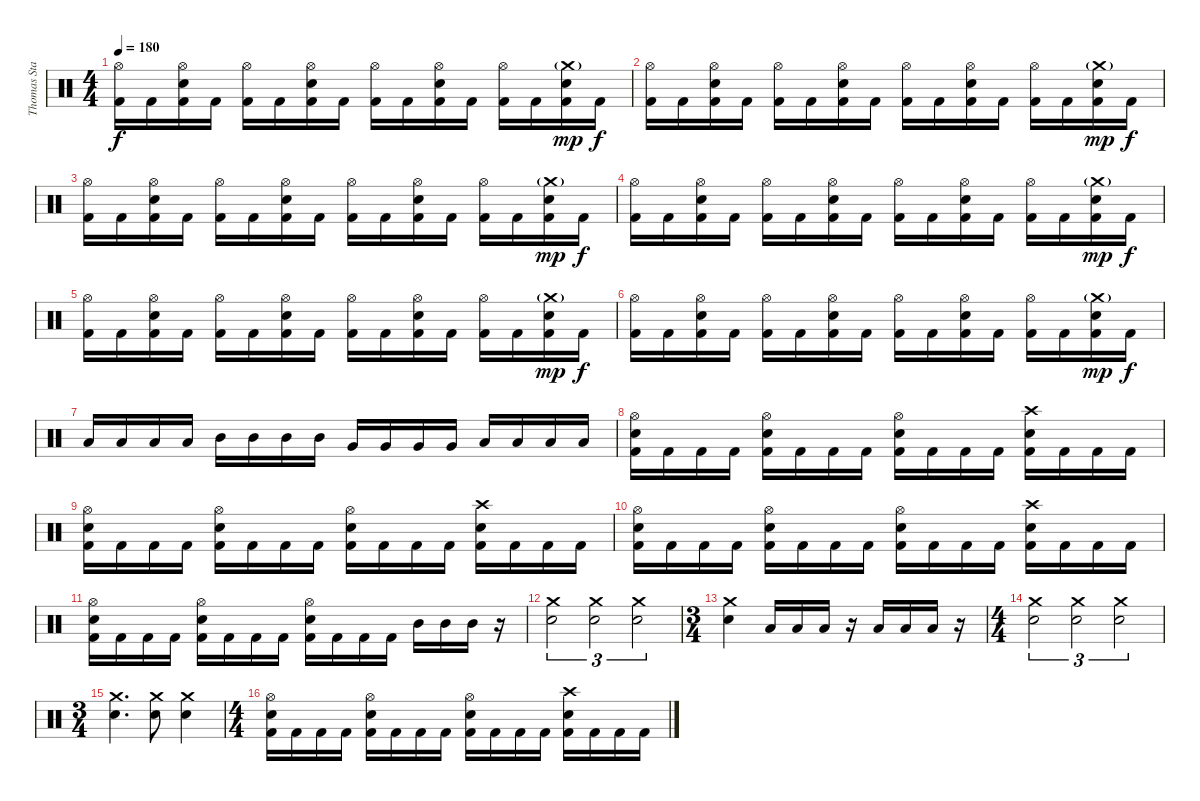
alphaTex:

\track ("Thomas Stauch" "Thomas Sta") {instrument percussion}
\staff {score}
\articulation defaults
\ts (4 4)
\tempo 180
\clef neutral
\ks c
("Hi-Hat (open)" "Kick (hit) 2").16{dy f} "Kick (hit) 2".16 ("Hi-Hat (open)" "Electric Snare (hit)" "Kick (hit) 2").16 "Kick (hit) 2".16 ("Hi-Hat (open)" "Kick (hit) 2").16 "Kick (hit) 2".16 ("Hi-Hat (open)" "Electric Snare (hit)" "Kick (hit) 2").16 "Kick (hit) 2".16 ("Hi-Hat (open)" "Kick (hit) 2").16 "Kick (hit) 2".16 ("Hi-Hat (open)" "Electric Snare (hit)" "Kick (hit) 2").16 "Kick (hit) 2".16 ("Hi-Hat (open)" "Kick (hit) 2").16 "Kick (hit) 2".16 ("Crash medium (hit)"{g} "Electric Snare (hit)" "Kick (hit) 2").16{dy mp} "Kick (hit) 2".16{dy f} |
("Hi-Hat (open)" "Kick (hit) 2").16 "Kick (hit) 2".16 ("Hi-Hat (open)" "Electric Snare (hit)" "Kick (hit) 2").16 "Kick (hit) 2".16 ("Hi-Hat (open)" "Kick (hit) 2").16 "Kick (hit) 2".16 ("Hi-Hat (open)" "Electric Snare (hit)" "Kick (hit) 2").16 "Kick (hit) 2".16 ("Hi-Hat (open)" "Kick (hit) 2").16 "Kick (hit) 2".16 ("Hi-Hat (open)" "Electric Snare (hit)" "Kick (hit) 2").16 "Kick (hit) 2".16 ("Hi-Hat (open)" "Kick (hit) 2").16 "Kick (hit) 2".16 ("Crash medium (hit)"{g} "Electric Snare (hit)" "Kick (hit) 2").16{dy mp} "Kick (hit) 2".16{dy f} |
("Hi-Hat (open)" "Kick (hit) 2").16 "Kick (hit) 2".16 ("Hi-Hat (open)" "Electric Snare (hit)" "Kick (hit) 2").16 "Kick (hit) 2".16 ("Hi-Hat (open)" "Kick (hit) 2").16 "Kick (hit) 2".16 ("Hi-Hat (open)" "Electric Snare (hit)" "Kick (hit) 2").16 "Kick (hit) 2".16 ("Hi-Hat (open)" "Kick (hit) 2").16 "Kick (hit) 2".16 ("Hi-Hat (open)" "Electric Snare (hit)" "Kick (hit) 2").16 "Kick (hit) 2".16 ("Hi-Hat (open)" "Kick (hit) 2").16 "Kick (hit) 2".16 ("Crash medium (hit)"{g} "Electric Snare (hit)" "Kick (hit) 2").16{dy mp} "Kick (hit) 2".16{dy f} |
("Hi-Hat (open)" "Kick (hit) 2").16 "Kick (hit) 2".16 ("Hi-Hat (open)" "Electric Snare (hit)" "Kick (hit) 2").16 "Kick (hit) 2".16 ("Hi-Hat (open)" "Kick (hit) 2").16 "Kick (hit) 2".16 ("Hi-Hat (open)" "Electric Snare (hit)" "Kick (hit) 2").16 "Kick (hit) 2".16 ("Hi-Hat (open)" "Kick (hit) 2").16 "Kick (hit) 2".16 ("Hi-Hat (open)" "Electric Snare (hit)" "Kick (hit) 2").16 "Kick (hit) 2".16 ("Hi-Hat (open)" "Kick (hit) 2").16 "Kick (hit) 2".16 ("Crash medium (hit)"{g} "Electric Snare (hit)" "Kick (hit) 2").16{dy mp} "Kick (hit) 2".16{dy f} |
("Hi-Hat (open)" "Kick (hit) 2").16 "Kick (hit) 2".16 ("Hi-Hat (open)" "Electric Snare (hit)" "Kick (hit) 2").16 "Kick (hit) 2".16 ("Hi-Hat (open)" "Kick (hit) 2").16 "Kick (hit) 2".16 ("Hi-Hat (open)" "Electric Snare (hit)" "Kick (hit) 2").16 "Kick (hit) 2".16 ("Hi-Hat (open)" "Kick (hit) 2").16 "Kick (hit) 2".16 ("Hi-Hat (open)" "Electric Snare (hit)" "Kick (hit) 2").16 "Kick (hit) 2".16 ("Hi-Hat (open)" "Kick (hit) 2").16 "Kick (hit) 2".16 ("Crash medium (hit)"{g} "Electric Snare (hit)" "Kick (hit) 2").16{dy mp} "Kick (hit) 2".16{dy f} |
("Hi-Hat (open)" "Kick (hit) 2").16 "Kick (hit) 2".16 ("Hi-Hat (open)" "Electric Snare (hit)" "Kick (hit) 2").16 "Kick (hit) 2".16 ("Hi-Hat (open)" "Kick (hit) 2").16 "Kick (hit) 2".16 ("Hi-Hat (open)" "Electric Snare (hit)" "Kick (hit) 2").16 "Kick (hit) 2".16 ("Hi-Hat (open)" "Kick (hit) 2").16 "Kick (hit) 2".16 ("Hi-Hat (open)" "Electric Snare (hit)" "Kick (hit) 2").16 "Kick (hit) 2".16 ("Hi-Hat (open)" "Kick (hit) 2").16 "Kick (hit) 2".16 ("Crash medium (hit)"{g} "Electric Snare (hit)" "Kick (hit) 2").16{dy mp} "Kick (hit) 2".16{dy f} |
"Low Tom (hit)".16 "Low Tom (hit)".16 "Low Tom (hit)".16 "Low Tom (hit)".16 "Mid Tom (hit)".16 "Mid Tom (hit)".16 "Mid Tom (hit)".16 "Mid Tom (hit)".16 "Very Low Tom (hit)".16 "Very Low Tom (hit)".16 "Very Low Tom (hit)".16 "Very Low Tom (hit)".16 "Low Floor Tom (hit)".16 "Low Floor Tom (hit)".16 "Low Floor Tom (hit)".16 "Low Floor Tom (hit)".16 |
("Hi-Hat (open)" "Electric Snare (hit)" "Kick (hit) 2").16 "Kick (hit) 2".16 "Kick (hit) 2".16 "Kick (hit) 2".16 ("Hi-Hat (open)" "Electric Snare (hit)" "Kick (hit) 2").16 "Kick (hit) 2".16 "Kick (hit) 2".16 "Kick (hit) 2".16 ("Hi-Hat (open)" "Electric Snare (hit)" "Kick (hit) 2").16 "Kick (hit) 2".16 "Kick (hit) 2".16 "Kick (hit) 2".16 ("Crash high (hit)" "Electric Snare (hit)" "Kick (hit) 2").16 "Kick (hit) 2".16 "Kick (hit) 2".16 "Kick (hit) 2".16 |
("Hi-Hat (open)" "Electric Snare (hit)" "Kick (hit) 2").16 "Kick (hit) 2".16 "Kick (hit) 2".16 "Kick (hit) 2".16 ("Hi-Hat (open)" "Electric Snare (hit)" "Kick (hit) 2").16 "Kick (hit) 2".16 "Kick (hit) 2".16 "Kick (hit) 2".16 ("Hi-Hat (open)" "Electric Snare (hit)" "Kick (hit) 2").16 "Kick (hit) 2".16 "Kick (hit) 2".16 "Kick (hit) 2".16 ("Crash high (hit)" "Electric Snare (hit)" "Kick (hit) 2").16 "Kick (hit) 2".16 "Kick (hit) 2".16 "Kick (hit) 2".16 |
("Hi-Hat (open)" "Electric Snare (hit)" "Kick (hit) 2").16 "Kick (hit) 2".16 "Kick (hit) 2".16 "Kick (hit) 2".16 ("Hi-Hat (open)" "Electric Snare (hit)" "Kick (hit) 2").16 "Kick (hit) 2".16 "Kick (hit) 2".16 "Kick (hit) 2".16 ("Hi-Hat (open)" "Electric Snare (hit)" "Kick (hit) 2").16 "Kick (hit) 2".16 "Kick (hit) 2".16 "Kick (hit) 2".16 ("Crash high (hit)" "Electric Snare (hit)" "Kick (hit) 2").16 "Kick (hit) 2".16 "Kick (hit) 2".16 "Kick (hit) 2".16 |
("Hi-Hat (open)" "Electric Snare (hit)" "Kick (hit) 2").16 "Kick (hit) 2".16 "Kick (hit) 2".16 "Kick (hit) 2".16 ("Hi-Hat (open)" "Electric Snare (hit)" "Kick (hit) 2").16 "Kick (hit) 2".16 "Kick (hit) 2".16 "Kick (hit) 2".16 ("Hi-Hat (open)" "Electric Snare (hit)" "Kick (hit) 2").16 "Kick (hit) 2".16 "Kick (hit) 2".16 "Kick (hit) 2".16 "Mid Tom (hit)".16 "Mid Tom (hit)".16 "Mid Tom (hit)".16 r.16 |
("Crash medium (hit)" "Electric Snare (hit)").2{tu (3 2)} ("Crash medium (hit)" "Electric Snare (hit)").2{tu (3 2)} ("Crash medium (hit)" "Electric Snare (hit)").2{tu (3 2)} |
\ts (3 4)
("Crash medium (hit)" "Electric Snare (hit)").4 "Low Tom (hit)".16 "Low Tom (hit)".16 "Low Tom (hit)".16 r.16 "Low Tom (hit)".16 "Low Tom (hit)".16 "Low Tom (hit)".16 r.16 |
\ts (4 4)
("Crash medium (hit)" "Electric Snare (hit)").2{tu (3 2)} ("Crash medium (hit)" "Electric Snare (hit)").2{tu (3 2)} ("Crash medium (hit)" "Electric Snare (hit)").2{tu (3 2)} |
\ts (3 4)
("Crash medium (hit)" "Electric Snare (hit)").4{d} ("Crash medium (hit)" "Electric Snare (hit)").8 ("Crash medium (hit)" "Electric Snare (hit)").4 |
\ts (4 4)
("Hi-Hat (open)" "Electric Snare (hit)" "Kick (hit) 2").16 "Kick (hit) 2".16 "Kick (hit) 2".16 "Kick (hit) 2".16 ("Hi-Hat (open)" "Electric Snare (hit)" "Kick (hit) 2").16 "Kick (hit) 2".16 "Kick (hit) 2".16 "Kick (hit) 2".16 ("Hi-Hat (open)" "Electric Snare (hit)" "Kick (hit) 2").16 "Kick (hit) 2".16 "Kick (hit) 2".16 "Kick (hit) 2".16 ("Crash high (hit)" "Electric Snare (hit)" "Kick (hit) 2").16 "Kick (hit) 2".16 "Kick (hit) 2".16 "Kick (hit) 2".16
